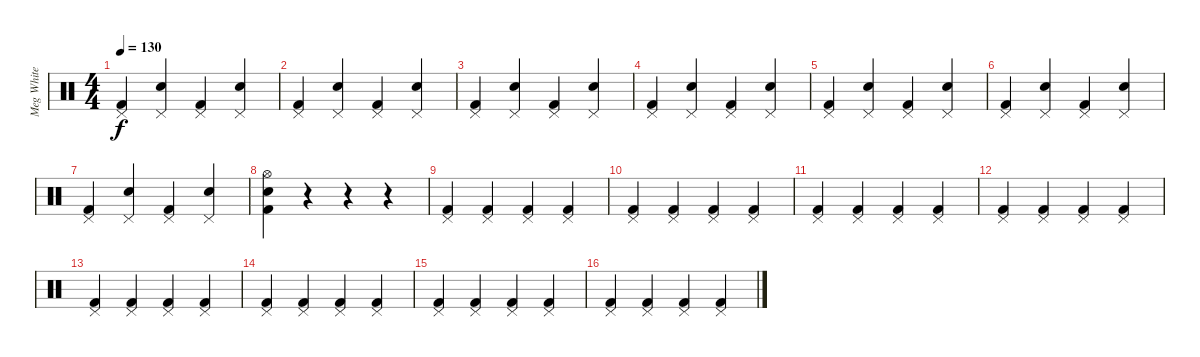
\track ("Meg White" "Meg White") {instrument percussion}
\staff {score}
\articulation defaults
\ts (4 4)
\tempo 130
\clef neutral
\ks c
("Kick (hit) 2" "Pedal Hi-Hat (hit)").4{dy f} ("Electric Snare (hit)" "Pedal Hi-Hat (hit)").4 ("Kick (hit) 2" "Pedal Hi-Hat (hit)").4 ("Electric Snare (hit)" "Pedal Hi-Hat (hit)").4 |
("Kick (hit) 2" "Pedal Hi-Hat (hit)").4 ("Electric Snare (hit)" "Pedal Hi-Hat (hit)").4 ("Kick (hit) 2" "Pedal Hi-Hat (hit)").4 ("Electric Snare (hit)" "Pedal Hi-Hat (hit)").4 |
("Kick (hit) 2" "Pedal Hi-Hat (hit)").4 ("Electric Snare (hit)" "Pedal Hi-Hat (hit)").4 ("Kick (hit) 2" "Pedal Hi-Hat (hit)").4 ("Electric Snare (hit)" "Pedal Hi-Hat (hit)").4 |
("Kick (hit) 2" "Pedal Hi-Hat (hit)").4 ("Electric Snare (hit)" "Pedal Hi-Hat (hit)").4 ("Kick (hit) 2" "Pedal Hi-Hat (hit)").4 ("Electric Snare (hit)" "Pedal Hi-Hat (hit)").4 |
("Kick (hit) 2" "Pedal Hi-Hat (hit)").4 ("Electric Snare (hit)" "Pedal Hi-Hat (hit)").4 ("Kick (hit) 2" "Pedal Hi-Hat (hit)").4 ("Electric Snare (hit)" "Pedal Hi-Hat (hit)").4 |
("Kick (hit) 2" "Pedal Hi-Hat (hit)").4 ("Electric Snare (hit)" "Pedal Hi-Hat (hit)").4 ("Kick (hit) 2" "Pedal Hi-Hat (hit)").4 ("Electric Snare (hit)" "Pedal Hi-Hat (hit)").4 |
("Kick (hit) 2" "Pedal Hi-Hat (hit)").4 ("Electric Snare (hit)" "Pedal Hi-Hat (hit)").4 ("Kick (hit) 2" "Pedal Hi-Hat (hit)").4 ("Electric Snare (hit)" "Pedal Hi-Hat (hit)").4 |
("Kick (hit) 2" "Hi-Hat (open)" "Electric Snare (hit)").4 r.4 r.4 r.4 |
("Kick (hit) 2" "Pedal Hi-Hat (hit)").4 ("Kick (hit) 2" "Pedal Hi-Hat (hit)").4 ("Kick (hit) 2" "Pedal Hi-Hat (hit)").4 ("Kick (hit) 2" "Pedal Hi-Hat (hit)").4 |
("Kick (hit) 2" "Pedal Hi-Hat (hit)").4 ("Kick (hit) 2" "Pedal Hi-Hat (hit)").4 ("Kick (hit) 2" "Pedal Hi-Hat (hit)").4 ("Kick (hit) 2" "Pedal Hi-Hat (hit)").4 |
("Kick (hit) 2" "Pedal Hi-Hat (hit)").4 ("Kick (hit) 2" "Pedal Hi-Hat (hit)").4 ("Kick (hit) 2" "Pedal Hi-Hat (hit)").4 ("Kick (hit) 2" "Pedal Hi-Hat (hit)").4 |
("Kick (hit) 2" "Pedal Hi-Hat (hit)").4 ("Kick (hit) 2" "Pedal Hi-Hat (hit)").4 ("Kick (hit) 2" "Pedal Hi-Hat (hit)").4 ("Kick (hit) 2" "Pedal Hi-Hat (hit)").4 |
("Kick (hit) 2" "Pedal Hi-Hat (hit)").4 ("Kick (hit) 2" "Pedal Hi-Hat (hit)").4 ("Kick (hit) 2" "Pedal Hi-Hat (hit)").4 ("Kick (hit) 2" "Pedal Hi-Hat (hit)").4 |
("Kick (hit) 2" "Pedal Hi-Hat (hit)").4 ("Kick (hit) 2" "Pedal Hi-Hat (hit)").4 ("Kick (hit) 2" "Pedal Hi-Hat (hit)").4 ("Kick (hit) 2" "Pedal Hi-Hat (hit)").4 |
("Kick (hit) 2" "Pedal Hi-Hat (hit)").4 ("Kick (hit) 2" "Pedal Hi-Hat (hit)").4 ("Kick (hit) 2" "Pedal Hi-Hat (hit)").4 ("Kick (hit) 2" "Pedal Hi-Hat (hit)").4 |
("Kick (hit) 2" "Pedal Hi-Hat (hit)").4 ("Kick (hit) 2" "Pedal Hi-Hat (hit)").4 ("Kick (hit) 2" "Pedal Hi-Hat (hit)").4 ("Kick (hit) 2" "Pedal Hi-Hat (hit)").4
